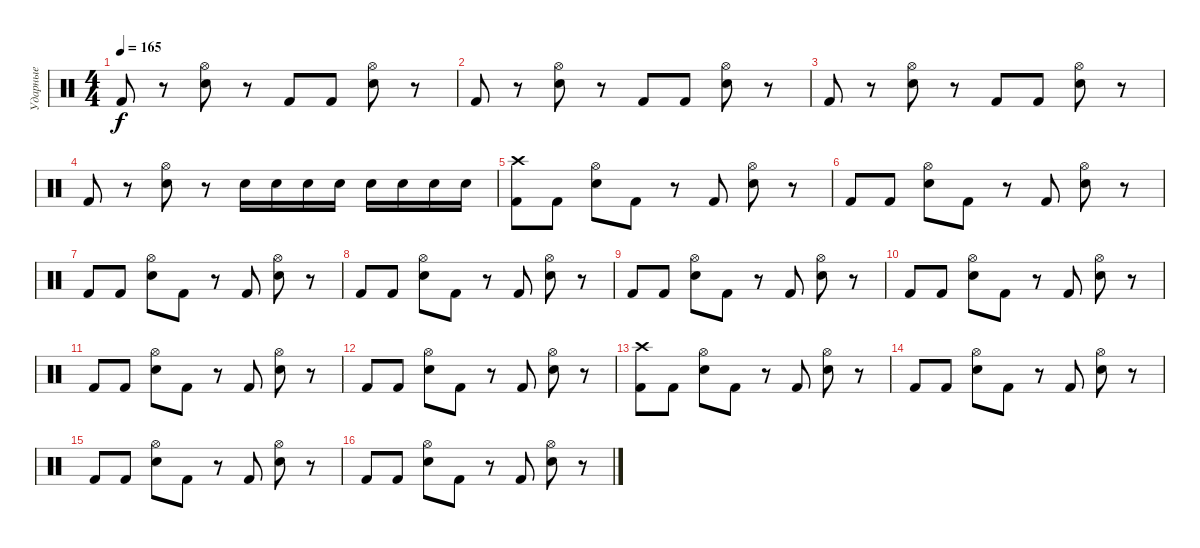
\track ("Ударные" "Ударные") {instrument percussion}
\staff {score}
\articulation defaults
\ts (4 4)
\tempo 165
\clef neutral
\ks c "Kick (hit) 2".8{dy f}
r.8 ("Hi-Hat (open)" "Electric Snare (hit)").8 r.8 "Kick (hit) 2".8 "Kick (hit) 2".8 ("Hi-Hat (open)" "Electric Snare (hit)").8 r.8 |
"Kick (hit) 2".8 r.8 ("Hi-Hat (open)" "Electric Snare (hit)").8 r.8 "Kick (hit) 2".8 "Kick (hit) 2".8 ("Hi-Hat (open)" "Electric Snare (hit)").8 r.8 |
"Kick (hit) 2".8 r.8 ("Hi-Hat (open)" "Electric Snare (hit)").8 r.8 "Kick (hit) 2".8 "Kick (hit) 2".8 ("Hi-Hat (open)" "Electric Snare (hit)").8 r.8 |
"Kick (hit) 2".8 r.8 ("Hi-Hat (open)" "Electric Snare (hit)").8 r.8 "Electric Snare (hit)".16 "Electric Snare (hit)".16 "Electric Snare (hit)".16 "Electric Snare (hit)".16 "Electric Snare (hit)".16 "Electric Snare (hit)".16 "Electric Snare (hit)".16 "Electric Snare (hit)".16 |
("Crash high (hit)" "Kick (hit) 2").8 "Kick (hit) 2".8 ("Hi-Hat (open)" "Electric Snare (hit)").8 "Kick (hit) 2".8 r.8 "Kick (hit) 2".8 ("Hi-Hat (open)" "Electric Snare (hit)").8 r.8 |
"Kick (hit) 2".8 "Kick (hit) 2".8 ("Hi-Hat (open)" "Electric Snare (hit)").8 "Kick (hit) 2".8 r.8 "Kick (hit) 2".8 ("Hi-Hat (open)" "Electric Snare (hit)").8 r.8 |
"Kick (hit) 2".8 "Kick (hit) 2".8 ("Hi-Hat (open)" "Electric Snare (hit)").8 "Kick (hit) 2".8 r.8 "Kick (hit) 2".8 ("Hi-Hat (open)" "Electric Snare (hit)").8 r.8 |
"Kick (hit) 2".8 "Kick (hit) 2".8 ("Hi-Hat (open)" "Electric Snare (hit)").8 "Kick (hit) 2".8 r.8 "Kick (hit) 2".8 ("Hi-Hat (open)" "Electric Snare (hit)").8 r.8 |
"Kick (hit) 2".8 "Kick (hit) 2".8 ("Hi-Hat (open)" "Electric Snare (hit)").8 "Kick (hit) 2".8 r.8 "Kick (hit) 2".8 ("Hi-Hat (open)" "Electric Snare (hit)").8 r.8 |
"Kick (hit) 2".8 "Kick (hit) 2".8 ("Hi-Hat (open)" "Electric Snare (hit)").8 "Kick (hit) 2".8 r.8 "Kick (hit) 2".8 ("Hi-Hat (open)" "Electric Snare (hit)").8 r.8 |
"Kick (hit) 2".8 "Kick (hit) 2".8 ("Hi-Hat (open)" "Electric Snare (hit)").8 "Kick (hit) 2".8 r.8 "Kick (hit) 2".8 ("Hi-Hat (open)" "Electric Snare (hit)").8 r.8 |
"Kick (hit) 2".8 "Kick (hit) 2".8 ("Hi-Hat (open)" "Electric Snare (hit)").8 "Kick (hit) 2".8 r.8 "Kick (hit) 2".8 ("Hi-Hat (open)" "Electric Snare (hit)").8 r.8 |
("Crash high (hit)" "Kick (hit) 2").8 "Kick (hit) 2".8 ("Hi-Hat (open)" "Electric Snare (hit)").8 "Kick (hit) 2".8 r.8 "Kick (hit) 2".8 ("Hi-Hat (open)" "Electric Snare (hit)").8 r.8 |
"Kick (hit) 2".8 "Kick (hit) 2".8 ("Hi-Hat (open)" "Electric Snare (hit)").8 "Kick (hit) 2".8 r.8 "Kick (hit) 2".8 ("Hi-Hat (open)" "Electric Snare (hit)").8 r.8 |
"Kick (hit) 2".8 "Kick (hit) 2".8 ("Hi-Hat (open)" "Electric Snare (hit)").8 "Kick (hit) 2".8 r.8 "Kick (hit) 2".8 ("Hi-Hat (open)" "Electric Snare (hit)").8 r.8 |
"Kick (hit) 2".8 "Kick (hit) 2".8 ("Hi-Hat (open)" "Electric Snare (hit)").8 "Kick (hit) 2".8 r.8 "Kick (hit) 2".8 ("Hi-Hat (open)" "Electric Snare (hit)").8 r.8
